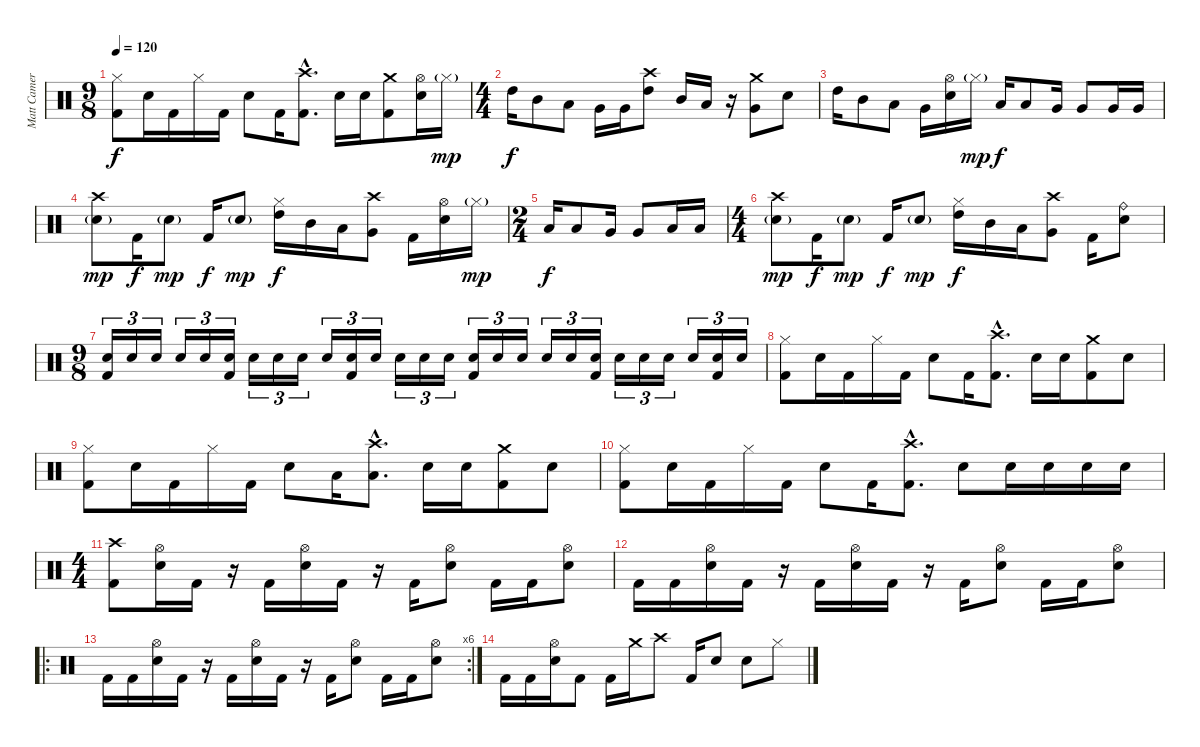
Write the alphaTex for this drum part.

\track ("Matt Cameron" "Matt Camer") {instrument percussion}
\staff {score}
\articulation defaults
\ts (9 8)
\tempo 120
\clef neutral
\ks c
("Hi-Hat (closed)" "Kick (hit) 2").8{dy f} "Electric Snare (hit)".16 "Kick (hit) 2".16 "Hi-Hat (closed)".16 "Kick (hit) 2".16 "Electric Snare (hit)".8 "Kick (hit) 2".16 ("Crash high (hit)"{hac} "Kick (hit) 2"{hac}).8{d} "Electric Snare (hit)".16 "Electric Snare (hit)".16 ("Crash medium (hit)" "Kick (hit) 2").8 ("Hi-Hat (open)" "Electric Snare (hit)").16 "Hi-Hat (closed)"{g}.16{dy mp} |
\ts (4 4)
"High Tom (hit)".16{dy f} "Mid Tom (hit)".8 "Low Tom (hit)".8 "Very Low Tom (hit)".16 "Very Low Tom (hit)".16 ("Crash high (hit)" "High Tom (hit)").8 "Mid Tom (hit)".16 "Low Tom (hit)".16 r.16 ("Crash medium (hit)" "Very Low Tom (hit)").8 "Electric Snare (hit)".8 |
"High Tom (hit)".16 "Mid Tom (hit)".8 "Low Tom (hit)".8 "Very Low Tom (hit)".16 ("Hi-Hat (open)" "Electric Snare (hit)").16 "Hi-Hat (closed)"{g}.16{dy mp} "Low Tom (hit)".16{dy f} "Low Tom (hit)".8 "Very Low Tom (hit)".16 "Very Low Tom (hit)".8 "Very Low Tom (hit)".16 "Very Low Tom (hit)".16 |
("Crash high (hit)" "Electric Snare (hit)"{g}).8{dy mp} "Kick (hit) 2".16{dy f} "Electric Snare (hit)"{g}.8{dy mp} "Kick (hit) 2".16{dy f} "Electric Snare (hit)"{g}.8{dy mp} ("Hi-Hat (closed)" "High Tom (hit)").16{dy f} "Mid Tom (hit)".16 "Low Tom (hit)".16 ("Crash high (hit)" "Very Low Tom (hit)").8 "Kick (hit) 2".16 ("Hi-Hat (open)" "Electric Snare (hit)").16 "Hi-Hat (closed)"{g}.16{dy mp} |
\ts (2 4)
"Low Tom (hit)".16{dy f} "Low Tom (hit)".8 "Very Low Tom (hit)".16 "Very Low Tom (hit)".8 "Low Tom (hit)".16 "Low Tom (hit)".16 |
\ts (4 4)
("Crash high (hit)" "Electric Snare (hit)"{g}).8{dy mp} "Kick (hit) 2".16{dy f} "Electric Snare (hit)"{g}.8{dy mp} "Kick (hit) 2".16{dy f} "Electric Snare (hit)"{g}.8{dy mp} ("Hi-Hat (closed)" "High Tom (hit)").16{dy f} "Mid Tom (hit)".16 "Low Tom (hit)".16 ("Crash high (hit)" "Very Low Tom (hit)").8 "Kick (hit) 2".16 ("Ride (bell)" "Electric Snare (hit)").8 |
\ts (9 8)
("Electric Snare (hit)" "Kick (hit) 2").16{tu (3 2)} "Electric Snare (hit)".16{tu (3 2)} "Electric Snare (hit)".16{tu (3 2)} "Electric Snare (hit)".16{tu (3 2)} "Electric Snare (hit)".16{tu (3 2)} ("Electric Snare (hit)" "Kick (hit) 2").16{tu (3 2)} "Electric Snare (hit)".16{tu (3 2)} "Electric Snare (hit)".16{tu (3 2)} "Electric Snare (hit)".16{tu (3 2)} "Electric Snare (hit)".16{tu (3 2)} ("Electric Snare (hit)" "Kick (hit) 2").16{tu (3 2)} "Electric Snare (hit)".16{tu (3 2)} "Electric Snare (hit)".16{tu (3 2)} "Electric Snare (hit)".16{tu (3 2)} "Electric Snare (hit)".16{tu (3 2)} ("Electric Snare (hit)" "Kick (hit) 2").16{tu (3 2)} "Electric Snare (hit)".16{tu (3 2)} "Electric Snare (hit)".16{tu (3 2)} "Electric Snare (hit)".16{tu (3 2)} "Electric Snare (hit)".16{tu (3 2)} ("Electric Snare (hit)" "Kick (hit) 2").16{tu (3 2)} "Electric Snare (hit)".16{tu (3 2)} "Electric Snare (hit)".16{tu (3 2)} "Electric Snare (hit)".16{tu (3 2)} "Electric Snare (hit)".16{tu (3 2)} ("Electric Snare (hit)" "Kick (hit) 2").16{tu (3 2)} "Electric Snare (hit)".16{tu (3 2)} |
("Hi-Hat (closed)" "Kick (hit) 2").8 "Electric Snare (hit)".16 "Kick (hit) 2".16 "Hi-Hat (closed)".16 "Kick (hit) 2".16 "Electric Snare (hit)".8 "Kick (hit) 2".16 ("Crash high (hit)"{hac} "Kick (hit) 2"{hac}).8{d} "Electric Snare (hit)".16 "Electric Snare (hit)".16 ("Crash medium (hit)" "Kick (hit) 2").8 "Electric Snare (hit)".8 |
("Hi-Hat (closed)" "Kick (hit) 2").8 "Electric Snare (hit)".16 "Kick (hit) 2".16 "Hi-Hat (closed)".16 "Kick (hit) 2".16 "Electric Snare (hit)".8 "Low Tom (hit)".16 ("Crash high (hit)"{hac} "Low Tom (hit)"{hac}).8{d} "Electric Snare (hit)".16 "Electric Snare (hit)".16 ("Crash medium (hit)" "Kick (hit) 2").8 "Electric Snare (hit)".8 |
("Hi-Hat (closed)" "Kick (hit) 2").8 "Electric Snare (hit)".16 "Kick (hit) 2".16 "Hi-Hat (closed)".16 "Kick (hit) 2".16 "Electric Snare (hit)".8 "Kick (hit) 2".16 ("Crash high (hit)"{hac} "Kick (hit) 2"{hac}).8{d} "Electric Snare (hit)".8 "Electric Snare (hit)".16 "Electric Snare (hit)".16 "Electric Snare (hit)".16 "Electric Snare (hit)".16 |
\ts (4 4)
("Crash high (hit)" "Kick (hit) 2").8 ("Hi-Hat (open)" "Electric Snare (hit)").16 "Kick (hit) 2".16 r.16 "Kick (hit) 2".16 ("Hi-Hat (open)" "Electric Snare (hit)").16 "Kick (hit) 2".16 r.16 "Kick (hit) 2".16 ("Hi-Hat (open)" "Electric Snare (hit)").8 "Kick (hit) 2".16 "Kick (hit) 2".16 ("Hi-Hat (open)" "Electric Snare (hit)").8 |
"Kick (hit) 2".16 "Kick (hit) 2".16 ("Hi-Hat (open)" "Electric Snare (hit)").16 "Kick (hit) 2".16 r.16 "Kick (hit) 2".16 ("Hi-Hat (open)" "Electric Snare (hit)").16 "Kick (hit) 2".16 r.16 "Kick (hit) 2".16 ("Hi-Hat (open)" "Electric Snare (hit)").8 "Kick (hit) 2".16 "Kick (hit) 2".16 ("Hi-Hat (open)" "Electric Snare (hit)").8 |
\ro
\rc 6 "Kick (hit) 2".16 "Kick (hit) 2".16
("Hi-Hat (open)" "Electric Snare (hit)").16 "Kick (hit) 2".16 r.16 "Kick (hit) 2".16 ("Hi-Hat (open)" "Electric Snare (hit)").16 "Kick (hit) 2".16 r.16 "Kick (hit) 2".16 ("Hi-Hat (open)" "Electric Snare (hit)").8 "Kick (hit) 2".16 "Kick (hit) 2".16 ("Hi-Hat (open)" "Electric Snare (hit)").8 |
"Kick (hit) 2".16 "Kick (hit) 2".16 ("Hi-Hat (open)" "Electric Snare (hit)").16 "Kick (hit) 2".8 "Kick (hit) 2".16 "Crash medium (hit)".16 "Crash high (hit)".8 "Kick (hit) 2".16 "Electric Snare (hit)".8 "Electric Snare (hit)".8 "Hi-Hat (closed)".8
